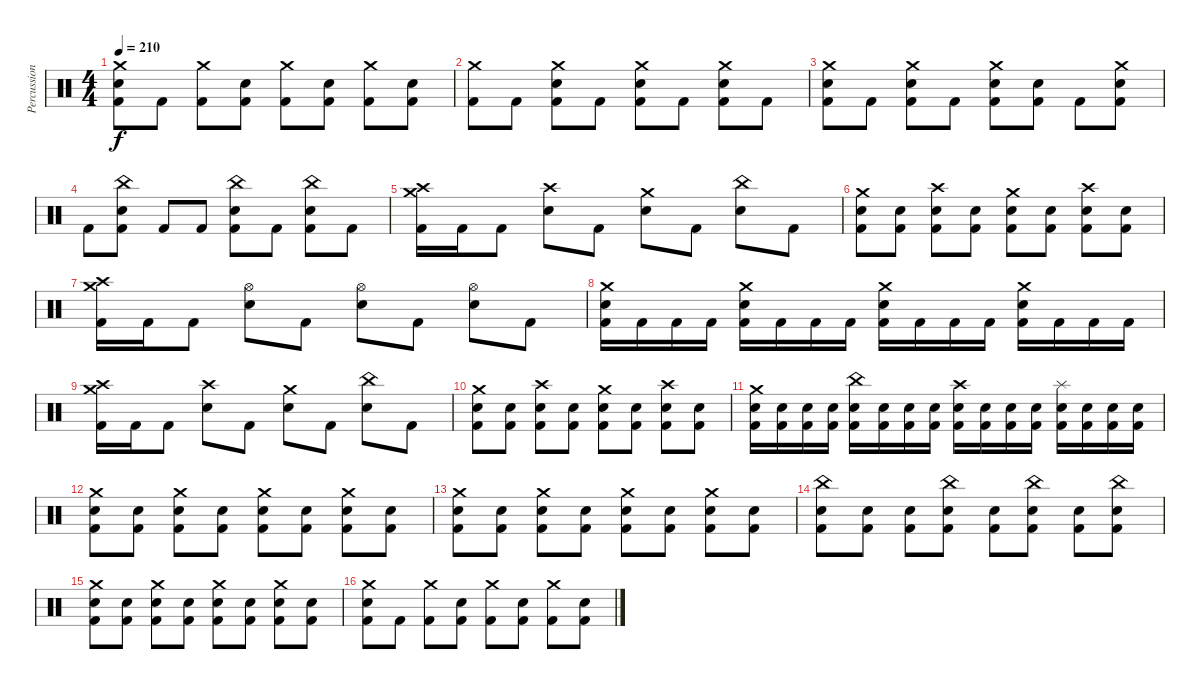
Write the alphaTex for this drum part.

\track ("Percussion" "Percussion") {instrument percussion}
\staff {score}
\articulation defaults
\ts (4 4)
\tempo 210
\clef neutral
\ks c
("Crash medium (hit)" "Snare (hit) 2" "Kick (hit) 2").8{dy f} "Kick (hit) 2".8 ("Crash medium (hit)" "Kick (hit) 2").8 ("Snare (hit) 2" "Kick (hit) 2").8 ("Crash medium (hit)" "Kick (hit) 2").8 ("Snare (hit) 2" "Kick (hit) 2").8 ("Crash medium (hit)" "Kick (hit) 2").8 ("Snare (hit) 2" "Kick (hit) 2").8 |
("Crash medium (hit)" "Kick (hit) 2").8 "Kick (hit) 2".8 ("Crash medium (hit)" "Snare (hit) 2" "Kick (hit) 2").8 "Kick (hit) 2".8 ("Crash medium (hit)" "Snare (hit) 2" "Kick (hit) 2").8 "Kick (hit) 2".8 ("Crash medium (hit)" "Snare (hit) 2" "Kick (hit) 2").8 "Kick (hit) 2".8 |
("Crash medium (hit)" "Snare (hit) 2" "Kick (hit) 2").8 "Kick (hit) 2".8 ("Crash medium (hit)" "Snare (hit) 2" "Kick (hit) 2").8 "Kick (hit) 2".8 ("Crash medium (hit)" "Snare (hit) 2" "Kick (hit) 2").8 ("Snare (hit) 2" "Kick (hit) 2").8 "Kick (hit) 2".8 ("Crash medium (hit)" "Snare (hit) 2" "Kick (hit) 2").8 |
"Kick (hit) 2".8 ("China (hit)" "Snare (hit) 2" "Kick (hit) 2").8 "Kick (hit) 2".8 "Kick (hit) 2".8 ("China (hit)" "Snare (hit) 2" "Kick (hit) 2").8 "Kick (hit) 2".8 ("China (hit)" "Snare (hit) 2" "Kick (hit) 2").8 "Kick (hit) 2".8 |
("Crash medium (hit)" "Crash high (hit)" "Kick (hit) 2").16 "Kick (hit) 2".16 "Kick (hit) 2".8 ("Crash high (hit)" "Snare (hit) 2").8 "Kick (hit) 2".8 ("Crash medium (hit)" "Snare (hit) 2").8 "Kick (hit) 2".8 ("China (hit)" "Snare (hit) 2").8 "Kick (hit) 2".8 |
("Crash medium (hit)" "Snare (hit) 2" "Kick (hit) 2").8 ("Snare (hit) 2" "Kick (hit) 2").8 ("Crash high (hit)" "Snare (hit) 2" "Kick (hit) 2").8 ("Snare (hit) 2" "Kick (hit) 2").8 ("Crash medium (hit)" "Snare (hit) 2" "Kick (hit) 2").8 ("Snare (hit) 2" "Kick (hit) 2").8 ("Crash high (hit)" "Snare (hit) 2" "Kick (hit) 2").8 ("Snare (hit) 2" "Kick (hit) 2").8 |
("Crash medium (hit)" "Crash high (hit)" "Kick (hit) 2").16 "Kick (hit) 2".16 "Kick (hit) 2".8 ("Hi-Hat (open)" "Snare (hit) 2").8 "Kick (hit) 2".8 ("Hi-Hat (open)" "Snare (hit) 2").8 "Kick (hit) 2".8 ("Hi-Hat (open)" "Snare (hit) 2").8 "Kick (hit) 2".8 |
("Crash medium (hit)" "Snare (hit) 2" "Kick (hit) 2").16 "Kick (hit) 2".16 "Kick (hit) 2".16 "Kick (hit) 2".16 ("Crash medium (hit)" "Snare (hit) 2" "Kick (hit) 2").16 "Kick (hit) 2".16 "Kick (hit) 2".16 "Kick (hit) 2".16 ("Crash medium (hit)" "Snare (hit) 2" "Kick (hit) 2").16 "Kick (hit) 2".16 "Kick (hit) 2".16 "Kick (hit) 2".16 ("Crash medium (hit)" "Snare (hit) 2" "Kick (hit) 2").16 "Kick (hit) 2".16 "Kick (hit) 2".16 "Kick (hit) 2".16 |
("Crash medium (hit)" "Crash high (hit)" "Kick (hit) 2").16 "Kick (hit) 2".16 "Kick (hit) 2".8 ("Crash high (hit)" "Snare (hit) 2").8 "Kick (hit) 2".8 ("Crash medium (hit)" "Snare (hit) 2").8 "Kick (hit) 2".8 ("China (hit)" "Snare (hit) 2").8 "Kick (hit) 2".8 |
("Crash medium (hit)" "Snare (hit) 2" "Kick (hit) 2").8 ("Snare (hit) 2" "Kick (hit) 2").8 ("Crash high (hit)" "Snare (hit) 2" "Kick (hit) 2").8 ("Snare (hit) 2" "Kick (hit) 2").8 ("Crash medium (hit)" "Snare (hit) 2" "Kick (hit) 2").8 ("Snare (hit) 2" "Kick (hit) 2").8 ("Crash high (hit)" "Snare (hit) 2" "Kick (hit) 2").8 ("Snare (hit) 2" "Kick (hit) 2").8 |
("Crash medium (hit)" "Snare (hit) 2" "Kick (hit) 2").16 ("Snare (hit) 2" "Kick (hit) 2").16 ("Snare (hit) 2" "Kick (hit) 2").16 ("Snare (hit) 2" "Kick (hit) 2").16 ("China (hit)" "Snare (hit) 2" "Kick (hit) 2").16 ("Snare (hit) 2" "Kick (hit) 2").16 ("Snare (hit) 2" "Kick (hit) 2").16 ("Snare (hit) 2" "Kick (hit) 2").16 ("Crash high (hit)" "Snare (hit) 2" "Kick (hit) 2").16 ("Snare (hit) 2" "Kick (hit) 2").16 ("Snare (hit) 2" "Kick (hit) 2").16 ("Snare (hit) 2" "Kick (hit) 2").16 ("Splash (hit)" "Snare (hit) 2" "Kick (hit) 2").16 ("Snare (hit) 2" "Kick (hit) 2").16 ("Snare (hit) 2" "Kick (hit) 2").16 ("Snare (hit) 2" "Kick (hit) 2").16 |
("Crash medium (hit)" "Snare (hit) 2" "Kick (hit) 2").8 ("Snare (hit) 2" "Kick (hit) 2").8 ("Crash medium (hit)" "Snare (hit) 2" "Kick (hit) 2").8 ("Snare (hit) 2" "Kick (hit) 2").8 ("Crash medium (hit)" "Snare (hit) 2" "Kick (hit) 2").8 ("Snare (hit) 2" "Kick (hit) 2").8 ("Crash medium (hit)" "Snare (hit) 2" "Kick (hit) 2").8 ("Snare (hit) 2" "Kick (hit) 2").8 |
("Crash medium (hit)" "Snare (hit) 2" "Kick (hit) 2").8 ("Snare (hit) 2" "Kick (hit) 2").8 ("Crash medium (hit)" "Snare (hit) 2" "Kick (hit) 2").8 ("Snare (hit) 2" "Kick (hit) 2").8 ("Crash medium (hit)" "Snare (hit) 2" "Kick (hit) 2").8 ("Snare (hit) 2" "Kick (hit) 2").8 ("Crash medium (hit)" "Snare (hit) 2" "Kick (hit) 2").8 ("Snare (hit) 2" "Kick (hit) 2").8 |
("China (hit)" "Snare (hit) 2" "Kick (hit) 2").8 ("Snare (hit) 2" "Kick (hit) 2").8 ("Snare (hit) 2" "Kick (hit) 2").8 ("China (hit)" "Snare (hit) 2" "Kick (hit) 2").8 ("Snare (hit) 2" "Kick (hit) 2").8 ("China (hit)" "Snare (hit) 2" "Kick (hit) 2").8 ("Snare (hit) 2" "Kick (hit) 2").8 ("China (hit)" "Snare (hit) 2" "Kick (hit) 2").8 |
("Crash medium (hit)" "Snare (hit) 2" "Kick (hit) 2").8 ("Snare (hit) 2" "Kick (hit) 2").8 ("Crash medium (hit)" "Snare (hit) 2" "Kick (hit) 2").8 ("Snare (hit) 2" "Kick (hit) 2").8 ("Crash medium (hit)" "Snare (hit) 2" "Kick (hit) 2").8 ("Snare (hit) 2" "Kick (hit) 2").8 ("Crash medium (hit)" "Snare (hit) 2" "Kick (hit) 2").8 ("Snare (hit) 2" "Kick (hit) 2").8 |
("Crash medium (hit)" "Snare (hit) 2" "Kick (hit) 2").8 "Kick (hit) 2".8 ("Crash medium (hit)" "Kick (hit) 2").8 ("Snare (hit) 2" "Kick (hit) 2").8 ("Crash medium (hit)" "Kick (hit) 2").8 ("Snare (hit) 2" "Kick (hit) 2").8 ("Crash medium (hit)" "Kick (hit) 2").8 ("Snare (hit) 2" "Kick (hit) 2").8
